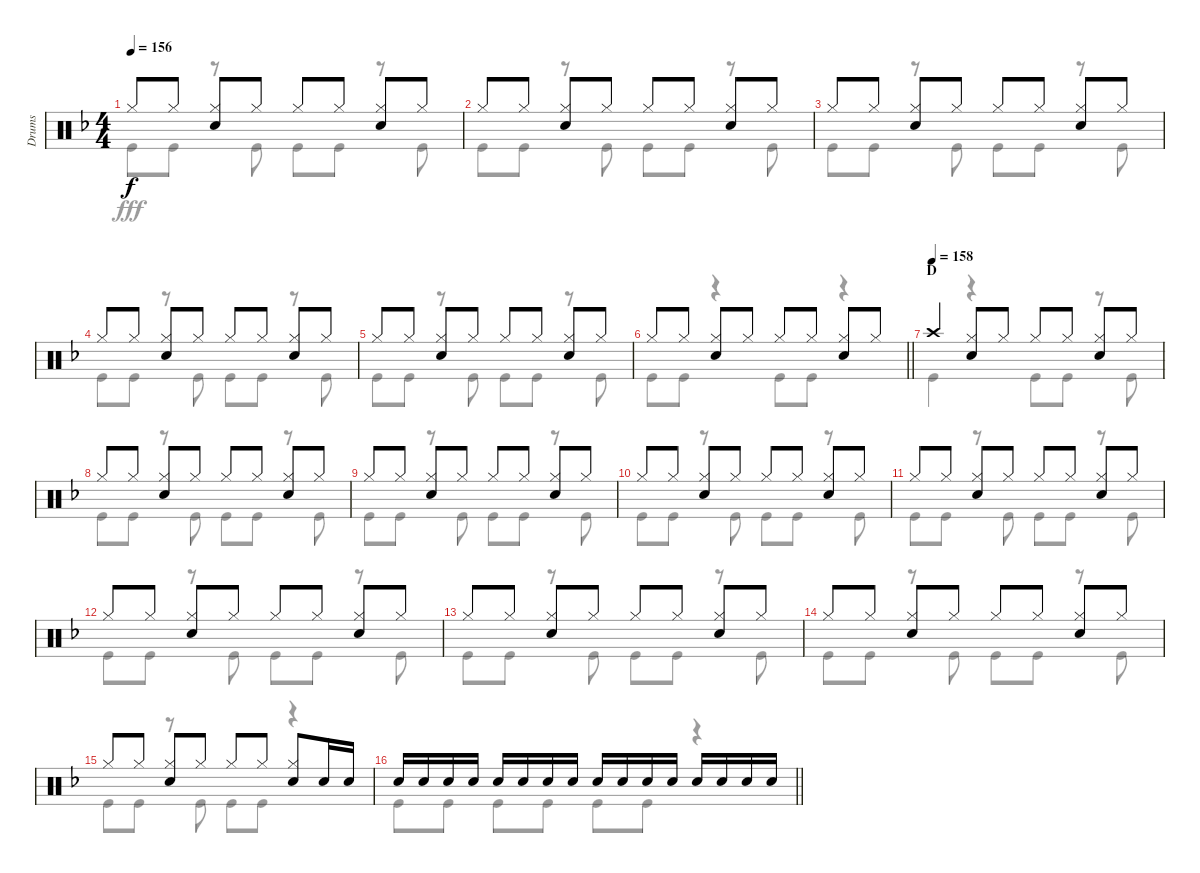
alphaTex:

\track ("Drums" "Drums") {instrument percussion}
\staff {score}
\articulation defaults
\voice
\ts (4 4)
\tempo 156
\clef neutral
\ks f "Hi-Hat (closed)".8{dy f} "Hi-Hat (closed)".8
("Hi-Hat (closed)" "Snare (hit) 2").8 "Hi-Hat (closed)".8 "Hi-Hat (closed)".8 "Hi-Hat (closed)".8 ("Hi-Hat (closed)" "Snare (hit) 2").8 "Hi-Hat (closed)".8 |
"Hi-Hat (closed)".8 "Hi-Hat (closed)".8 ("Hi-Hat (closed)" "Snare (hit) 2").8 "Hi-Hat (closed)".8 "Hi-Hat (closed)".8 "Hi-Hat (closed)".8 ("Hi-Hat (closed)" "Snare (hit) 2").8 "Hi-Hat (closed)".8 |
"Hi-Hat (closed)".8 "Hi-Hat (closed)".8 ("Hi-Hat (closed)" "Snare (hit) 2").8 "Hi-Hat (closed)".8 "Hi-Hat (closed)".8 "Hi-Hat (closed)".8 ("Hi-Hat (closed)" "Snare (hit) 2").8 "Hi-Hat (closed)".8 |
"Hi-Hat (closed)".8 "Hi-Hat (closed)".8 ("Hi-Hat (closed)" "Snare (hit) 2").8 "Hi-Hat (closed)".8 "Hi-Hat (closed)".8 "Hi-Hat (closed)".8 ("Hi-Hat (closed)" "Snare (hit) 2").8 "Hi-Hat (closed)".8 |
"Hi-Hat (closed)".8 "Hi-Hat (closed)".8 ("Hi-Hat (closed)" "Snare (hit) 2").8 "Hi-Hat (closed)".8 "Hi-Hat (closed)".8 "Hi-Hat (closed)".8 ("Hi-Hat (closed)" "Snare (hit) 2").8 "Hi-Hat (closed)".8 |
\barLineRight lightlight "Hi-Hat (closed)".8 "Hi-Hat (closed)".8
("Hi-Hat (closed)" "Snare (hit) 2").8 "Hi-Hat (closed)".8 "Hi-Hat (closed)".8 "Hi-Hat (closed)".8 ("Hi-Hat (closed)" "Snare (hit) 2").8 "Hi-Hat (closed)".8 |
\section ("" "D")
\tempo (158)
"Crash high (hit)".4 ("Hi-Hat (closed)" "Snare (hit) 2").8 "Hi-Hat (closed)".8 "Hi-Hat (closed)".8 "Hi-Hat (closed)".8 ("Hi-Hat (closed)" "Snare (hit) 2").8 "Hi-Hat (closed)".8 |
"Hi-Hat (closed)".8 "Hi-Hat (closed)".8 ("Hi-Hat (closed)" "Snare (hit) 2").8 "Hi-Hat (closed)".8 "Hi-Hat (closed)".8 "Hi-Hat (closed)".8 ("Hi-Hat (closed)" "Snare (hit) 2").8 "Hi-Hat (closed)".8 |
"Hi-Hat (closed)".8 "Hi-Hat (closed)".8 ("Hi-Hat (closed)" "Snare (hit) 2").8 "Hi-Hat (closed)".8 "Hi-Hat (closed)".8 "Hi-Hat (closed)".8 ("Hi-Hat (closed)" "Snare (hit) 2").8 "Hi-Hat (closed)".8 |
"Hi-Hat (closed)".8 "Hi-Hat (closed)".8 ("Hi-Hat (closed)" "Snare (hit) 2").8 "Hi-Hat (closed)".8 "Hi-Hat (closed)".8 "Hi-Hat (closed)".8 ("Hi-Hat (closed)" "Snare (hit) 2").8 "Hi-Hat (closed)".8 |
"Hi-Hat (closed)".8 "Hi-Hat (closed)".8 ("Hi-Hat (closed)" "Snare (hit) 2").8 "Hi-Hat (closed)".8 "Hi-Hat (closed)".8 "Hi-Hat (closed)".8 ("Hi-Hat (closed)" "Snare (hit) 2").8 "Hi-Hat (closed)".8 |
"Hi-Hat (closed)".8 "Hi-Hat (closed)".8 ("Hi-Hat (closed)" "Snare (hit) 2").8 "Hi-Hat (closed)".8 "Hi-Hat (closed)".8 "Hi-Hat (closed)".8 ("Hi-Hat (closed)" "Snare (hit) 2").8 "Hi-Hat (closed)".8 |
"Hi-Hat (closed)".8 "Hi-Hat (closed)".8 ("Hi-Hat (closed)" "Snare (hit) 2").8 "Hi-Hat (closed)".8 "Hi-Hat (closed)".8 "Hi-Hat (closed)".8 ("Hi-Hat (closed)" "Snare (hit) 2").8 "Hi-Hat (closed)".8 |
"Hi-Hat (closed)".8 "Hi-Hat (closed)".8 ("Hi-Hat (closed)" "Snare (hit) 2").8 "Hi-Hat (closed)".8 "Hi-Hat (closed)".8 "Hi-Hat (closed)".8 ("Hi-Hat (closed)" "Snare (hit) 2").8 "Hi-Hat (closed)".8 |
"Hi-Hat (closed)".8 "Hi-Hat (closed)".8 ("Hi-Hat (closed)" "Snare (hit) 2").8 "Hi-Hat (closed)".8 "Hi-Hat (closed)".8 "Hi-Hat (closed)".8 ("Hi-Hat (closed)" "Snare (hit) 2").8 "Snare (hit) 2".16 "Snare (hit) 2".16 |
\barLineRight lightlight "Snare (hit) 2".16 "Snare (hit) 2".16 "Snare (hit) 2".16 "Snare (hit) 2".16 "Snare (hit) 2".16 "Snare (hit) 2".16 "Snare (hit) 2".16 "Snare (hit) 2".16 "Snare (hit) 2".16 "Snare (hit) 2".16 "Snare (hit) 2".16 "Snare (hit) 2".16 "Snare (hit) 2".16 "Snare (hit) 2".16 "Snare (hit) 2".16 "Snare (hit) 2".16
\voice
\clef neutral
\ottava regular
\simile none
\ks f "Kick (hit)".8{dy fff} "Kick (hit)".8
r.8 "Kick (hit)".8 "Kick (hit)".8 "Kick (hit)".8 r.8 "Kick (hit)".8 |
"Kick (hit)".8 "Kick (hit)".8 r.8 "Kick (hit)".8 "Kick (hit)".8 "Kick (hit)".8 r.8 "Kick (hit)".8 |
"Kick (hit)".8 "Kick (hit)".8 r.8 "Kick (hit)".8 "Kick (hit)".8 "Kick (hit)".8 r.8 "Kick (hit)".8 |
"Kick (hit)".8 "Kick (hit)".8 r.8 "Kick (hit)".8 "Kick (hit)".8 "Kick (hit)".8 r.8 "Kick (hit)".8 |
"Kick (hit)".8 "Kick (hit)".8 r.8 "Kick (hit)".8 "Kick (hit)".8 "Kick (hit)".8 r.8 "Kick (hit)".8 |
\barLineRight lightlight "Kick (hit)".8 "Kick (hit)".8
r.4 "Kick (hit)".8 "Kick (hit)".8 r.4 |
"Kick (hit)".4 r.4 "Kick (hit)".8 "Kick (hit)".8 r.8 "Kick (hit)".8 |
"Kick (hit)".8 "Kick (hit)".8 r.8 "Kick (hit)".8 "Kick (hit)".8 "Kick (hit)".8 r.8 "Kick (hit)".8 |
"Kick (hit)".8 "Kick (hit)".8 r.8 "Kick (hit)".8 "Kick (hit)".8 "Kick (hit)".8 r.8 "Kick (hit)".8 |
"Kick (hit)".8 "Kick (hit)".8 r.8 "Kick (hit)".8 "Kick (hit)".8 "Kick (hit)".8 r.8 "Kick (hit)".8 |
"Kick (hit)".8 "Kick (hit)".8 r.8 "Kick (hit)".8 "Kick (hit)".8 "Kick (hit)".8 r.8 "Kick (hit)".8 |
"Kick (hit)".8 "Kick (hit)".8 r.8 "Kick (hit)".8 "Kick (hit)".8 "Kick (hit)".8 r.8 "Kick (hit)".8 |
"Kick (hit)".8 "Kick (hit)".8 r.8 "Kick (hit)".8 "Kick (hit)".8 "Kick (hit)".8 r.8 "Kick (hit)".8 |
"Kick (hit)".8 "Kick (hit)".8 r.8 "Kick (hit)".8 "Kick (hit)".8 "Kick (hit)".8 r.8 "Kick (hit)".8 |
"Kick (hit)".8 "Kick (hit)".8 r.8 "Kick (hit)".8 "Kick (hit)".8 "Kick (hit)".8 r.4 |
\barLineRight lightlight "Kick (hit)".8 "Kick (hit)".8 "Kick (hit)".8 "Kick (hit)".8 "Kick (hit)".8 "Kick (hit)".8
r.4
